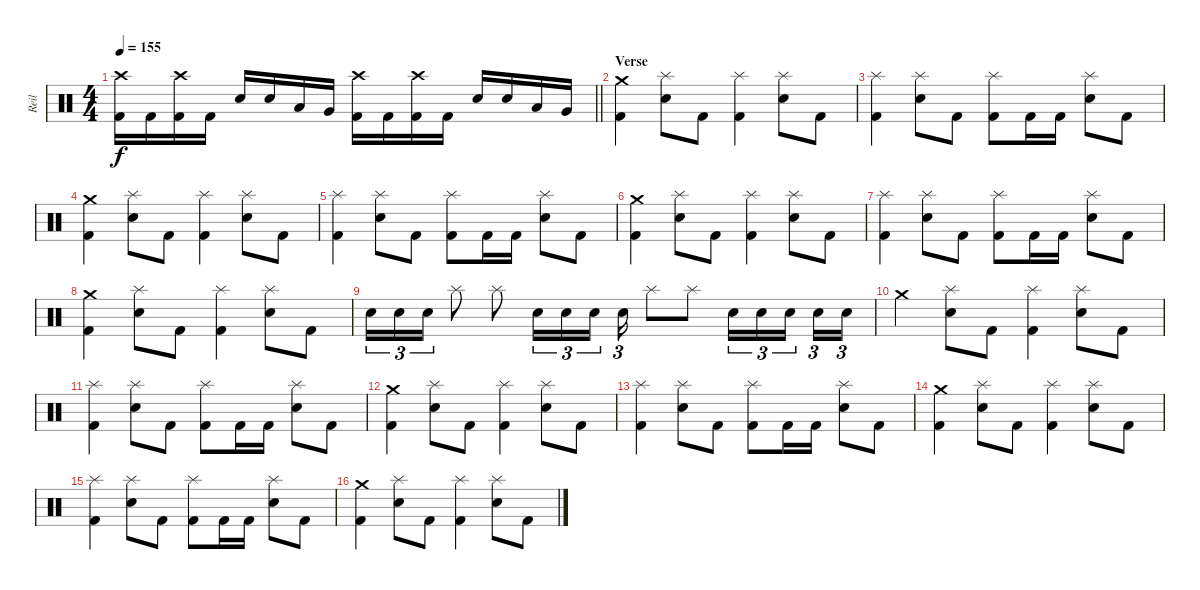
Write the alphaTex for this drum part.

\track ("Reil" "Reil") {instrument percussion}
\staff {score}
\articulation defaults
\ts (4 4)
\tempo 155
\clef neutral
\barLineRight lightlight
\ks c
("Crash high (hit)" "Kick (hit) 2").16{dy f} "Kick (hit) 2".16 ("Crash high (hit)" "Kick (hit) 2").16 "Kick (hit) 2".16 "Electric Snare (hit)".16 "Electric Snare (hit)".16 "Low Tom (hit)".16 "Very Low Tom (hit)".16 ("Crash high (hit)" "Kick (hit) 2").16 "Kick (hit) 2".16 ("Crash high (hit)" "Kick (hit) 2").16 "Kick (hit) 2".16 "Electric Snare (hit)".16 "Electric Snare (hit)".16 "Low Tom (hit)".16 "Very Low Tom (hit)".16 |
\section ("" "Verse")
("Crash medium (hit)" "Kick (hit) 2").4 ("Splash (hit)" "Electric Snare (hit)").8 "Kick (hit) 2".8 ("Splash (hit)" "Kick (hit) 2").4 ("Splash (hit)" "Electric Snare (hit)").8 "Kick (hit) 2".8 |
("Splash (hit)" "Kick (hit) 2").4 ("Splash (hit)" "Electric Snare (hit)").8 "Kick (hit) 2".8 ("Splash (hit)" "Kick (hit) 2").8 "Kick (hit) 2".16 "Kick (hit) 2".16 ("Splash (hit)" "Electric Snare (hit)").8 "Kick (hit) 2".8 |
("Crash medium (hit)" "Kick (hit) 2").4 ("Splash (hit)" "Electric Snare (hit)").8 "Kick (hit) 2".8 ("Splash (hit)" "Kick (hit) 2").4 ("Splash (hit)" "Electric Snare (hit)").8 "Kick (hit) 2".8 |
("Splash (hit)" "Kick (hit) 2").4 ("Splash (hit)" "Electric Snare (hit)").8 "Kick (hit) 2".8 ("Splash (hit)" "Kick (hit) 2").8 "Kick (hit) 2".16 "Kick (hit) 2".16 ("Splash (hit)" "Electric Snare (hit)").8 "Kick (hit) 2".8 |
("Crash medium (hit)" "Kick (hit) 2").4 ("Splash (hit)" "Electric Snare (hit)").8 "Kick (hit) 2".8 ("Splash (hit)" "Kick (hit) 2").4 ("Splash (hit)" "Electric Snare (hit)").8 "Kick (hit) 2".8 |
("Splash (hit)" "Kick (hit) 2").4 ("Splash (hit)" "Electric Snare (hit)").8 "Kick (hit) 2".8 ("Splash (hit)" "Kick (hit) 2").8 "Kick (hit) 2".16 "Kick (hit) 2".16 ("Splash (hit)" "Electric Snare (hit)").8 "Kick (hit) 2".8 |
("Crash medium (hit)" "Kick (hit) 2").4 ("Splash (hit)" "Electric Snare (hit)").8 "Kick (hit) 2".8 ("Splash (hit)" "Kick (hit) 2").4 ("Splash (hit)" "Electric Snare (hit)").8 "Kick (hit) 2".8 |
"Electric Snare (hit)".16{tu (3 2)} "Electric Snare (hit)".16{tu (3 2)} "Electric Snare (hit)".16{tu (3 2)} "Splash (hit)".8 "Splash (hit)".8 "Electric Snare (hit)".16{tu (3 2)} "Electric Snare (hit)".16{tu (3 2)} "Electric Snare (hit)".16{tu (3 2)} "Electric Snare (hit)".16{tu (3 2)} "Splash (hit)".8 "Splash (hit)".8 "Electric Snare (hit)".16{tu (3 2)} "Electric Snare (hit)".16{tu (3 2)} "Electric Snare (hit)".16{tu (3 2) beam splitsecondary} "Electric Snare (hit)".16{tu (3 2)} "Electric Snare (hit)".16{tu (3 2)} |
"Crash medium (hit)".4 ("Splash (hit)" "Electric Snare (hit)").8 "Kick (hit) 2".8 ("Splash (hit)" "Kick (hit) 2").4 ("Splash (hit)" "Electric Snare (hit)").8 "Kick (hit) 2".8 |
("Splash (hit)" "Kick (hit) 2").4 ("Splash (hit)" "Electric Snare (hit)").8 "Kick (hit) 2".8 ("Splash (hit)" "Kick (hit) 2").8 "Kick (hit) 2".16 "Kick (hit) 2".16 ("Splash (hit)" "Electric Snare (hit)").8 "Kick (hit) 2".8 |
("Crash medium (hit)" "Kick (hit) 2").4 ("Splash (hit)" "Electric Snare (hit)").8 "Kick (hit) 2".8 ("Splash (hit)" "Kick (hit) 2").4 ("Splash (hit)" "Electric Snare (hit)").8 "Kick (hit) 2".8 |
("Splash (hit)" "Kick (hit) 2").4 ("Splash (hit)" "Electric Snare (hit)").8 "Kick (hit) 2".8 ("Splash (hit)" "Kick (hit) 2").8 "Kick (hit) 2".16 "Kick (hit) 2".16 ("Splash (hit)" "Electric Snare (hit)").8 "Kick (hit) 2".8 |
("Crash medium (hit)" "Kick (hit) 2").4 ("Splash (hit)" "Electric Snare (hit)").8 "Kick (hit) 2".8 ("Splash (hit)" "Kick (hit) 2").4 ("Splash (hit)" "Electric Snare (hit)").8 "Kick (hit) 2".8 |
("Splash (hit)" "Kick (hit) 2").4 ("Splash (hit)" "Electric Snare (hit)").8 "Kick (hit) 2".8 ("Splash (hit)" "Kick (hit) 2").8 "Kick (hit) 2".16 "Kick (hit) 2".16 ("Splash (hit)" "Electric Snare (hit)").8 "Kick (hit) 2".8 |
("Crash medium (hit)" "Kick (hit) 2").4 ("Splash (hit)" "Electric Snare (hit)").8 "Kick (hit) 2".8 ("Splash (hit)" "Kick (hit) 2").4 ("Splash (hit)" "Electric Snare (hit)").8 "Kick (hit) 2".8
